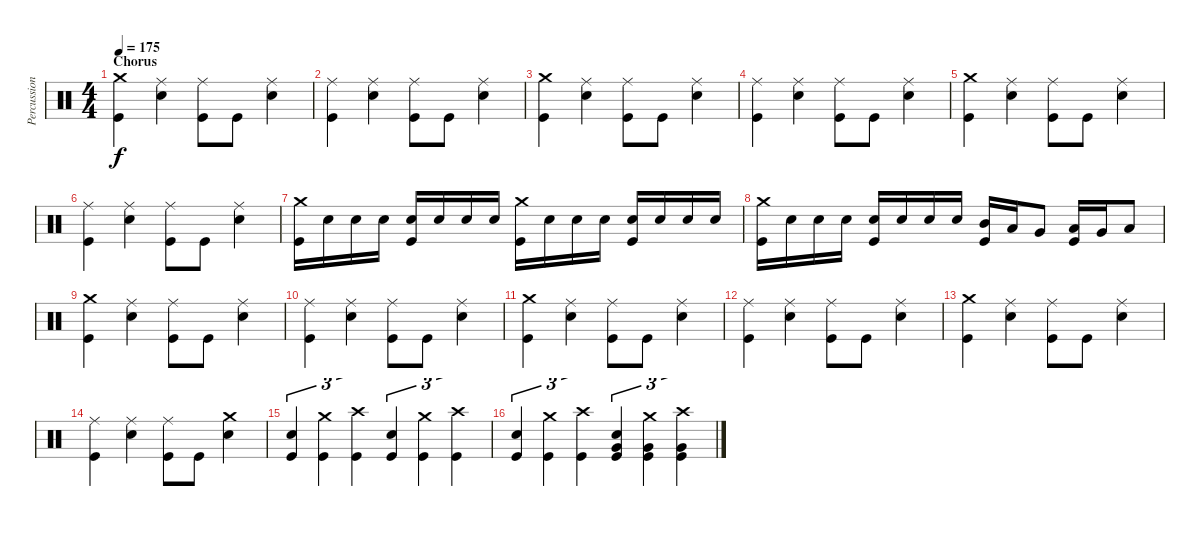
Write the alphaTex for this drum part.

\track ("Percussion" "Percussion") {instrument percussion}
\staff {score}
\articulation defaults
\ts (4 4)
\section ("" "Chorus")
\tempo 175
\clef neutral
\ks c
("Crash medium (hit)" "Kick (hit)").4{dy f} ("Ride (middle)" "Electric Snare (hit)").4 ("Ride (middle)" "Kick (hit)").8 "Kick (hit)".8 ("Ride (middle)" "Electric Snare (hit)").4 |
("Ride (middle)" "Kick (hit)").4 ("Ride (middle)" "Electric Snare (hit)").4 ("Ride (middle)" "Kick (hit)").8 "Kick (hit)".8 ("Ride (middle)" "Electric Snare (hit)").4 |
("Crash medium (hit)" "Kick (hit)").4 ("Ride (middle)" "Electric Snare (hit)").4 ("Ride (middle)" "Kick (hit)").8 "Kick (hit)".8 ("Ride (middle)" "Electric Snare (hit)").4 |
("Ride (middle)" "Kick (hit)").4 ("Ride (middle)" "Electric Snare (hit)").4 ("Ride (middle)" "Kick (hit)").8 "Kick (hit)".8 ("Ride (middle)" "Electric Snare (hit)").4 |
("Crash medium (hit)" "Kick (hit)").4 ("Ride (middle)" "Electric Snare (hit)").4 ("Ride (middle)" "Kick (hit)").8 "Kick (hit)".8 ("Ride (middle)" "Electric Snare (hit)").4 |
("Ride (middle)" "Kick (hit)").4 ("Ride (middle)" "Electric Snare (hit)").4 ("Ride (middle)" "Kick (hit)").8 "Kick (hit)".8 ("Ride (middle)" "Electric Snare (hit)").4 |
("Crash medium (hit)" "Kick (hit)").16 "Electric Snare (hit)".16 "Electric Snare (hit)".16 "Electric Snare (hit)".16 ("Electric Snare (hit)" "Kick (hit)").16 "Electric Snare (hit)".16 "Electric Snare (hit)".16 "Electric Snare (hit)".16 ("Crash medium (hit)" "Kick (hit)").16 "Electric Snare (hit)".16 "Electric Snare (hit)".16 "Electric Snare (hit)".16 ("Electric Snare (hit)" "Kick (hit)").16 "Electric Snare (hit)".16 "Electric Snare (hit)".16 "Electric Snare (hit)".16 |
("Crash medium (hit)" "Kick (hit)").16 "Electric Snare (hit)".16 "Electric Snare (hit)".16 "Electric Snare (hit)".16 ("Electric Snare (hit)" "Kick (hit)").16 "Electric Snare (hit)".16 "Electric Snare (hit)".16 "Electric Snare (hit)".16 ("Mid Tom (hit)" "Kick (hit)").16 "Low Tom (hit)".16 "Very Low Tom (hit)".8 ("Low Tom (hit)" "Kick (hit)").16 "Very Low Tom (hit)".16 "Low Floor Tom (hit)".8 |
("Crash medium (hit)" "Kick (hit)").4 ("Ride (middle)" "Electric Snare (hit)").4 ("Ride (middle)" "Kick (hit)").8 "Kick (hit)".8 ("Ride (middle)" "Electric Snare (hit)").4 |
("Ride (middle)" "Kick (hit)").4 ("Ride (middle)" "Electric Snare (hit)").4 ("Ride (middle)" "Kick (hit)").8 "Kick (hit)".8 ("Ride (middle)" "Electric Snare (hit)").4 |
("Crash medium (hit)" "Kick (hit)").4 ("Ride (middle)" "Electric Snare (hit)").4 ("Ride (middle)" "Kick (hit)").8 "Kick (hit)".8 ("Ride (middle)" "Electric Snare (hit)").4 |
("Ride (middle)" "Kick (hit)").4 ("Ride (middle)" "Electric Snare (hit)").4 ("Ride (middle)" "Kick (hit)").8 "Kick (hit)".8 ("Ride (middle)" "Electric Snare (hit)").4 |
("Crash medium (hit)" "Kick (hit)").4 ("Ride (middle)" "Electric Snare (hit)").4 ("Ride (middle)" "Kick (hit)").8 "Kick (hit)".8 ("Ride (middle)" "Electric Snare (hit)").4 |
("Ride (middle)" "Kick (hit)").4 ("Ride (middle)" "Electric Snare (hit)").4 ("Ride (middle)" "Kick (hit)").8 "Kick (hit)".8 ("Crash medium (hit)" "Electric Snare (hit)").4 |
("Electric Snare (hit)" "Kick (hit)").4{tu (3 2)} ("Crash medium (hit)" "Kick (hit)").4{tu (3 2)} ("Crash high (hit)" "Kick (hit)").4{tu (3 2)} ("Electric Snare (hit)" "Kick (hit)").4{tu (3 2)} ("Crash medium (hit)" "Kick (hit)").4{tu (3 2)} ("Crash high (hit)" "Kick (hit)").4{tu (3 2)} |
("Electric Snare (hit)" "Kick (hit)").4{tu (3 2)} ("Crash medium (hit)" "Kick (hit)").4{tu (3 2)} ("Crash high (hit)" "Kick (hit)").4{tu (3 2)} ("Electric Snare (hit)" "Very Low Tom (hit)" "Kick (hit)").4{tu (3 2)} ("Crash medium (hit)" "Very Low Tom (hit)" "Kick (hit)").4{tu (3 2)} ("Crash high (hit)" "Very Low Tom (hit)" "Kick (hit)").4{tu (3 2)}
